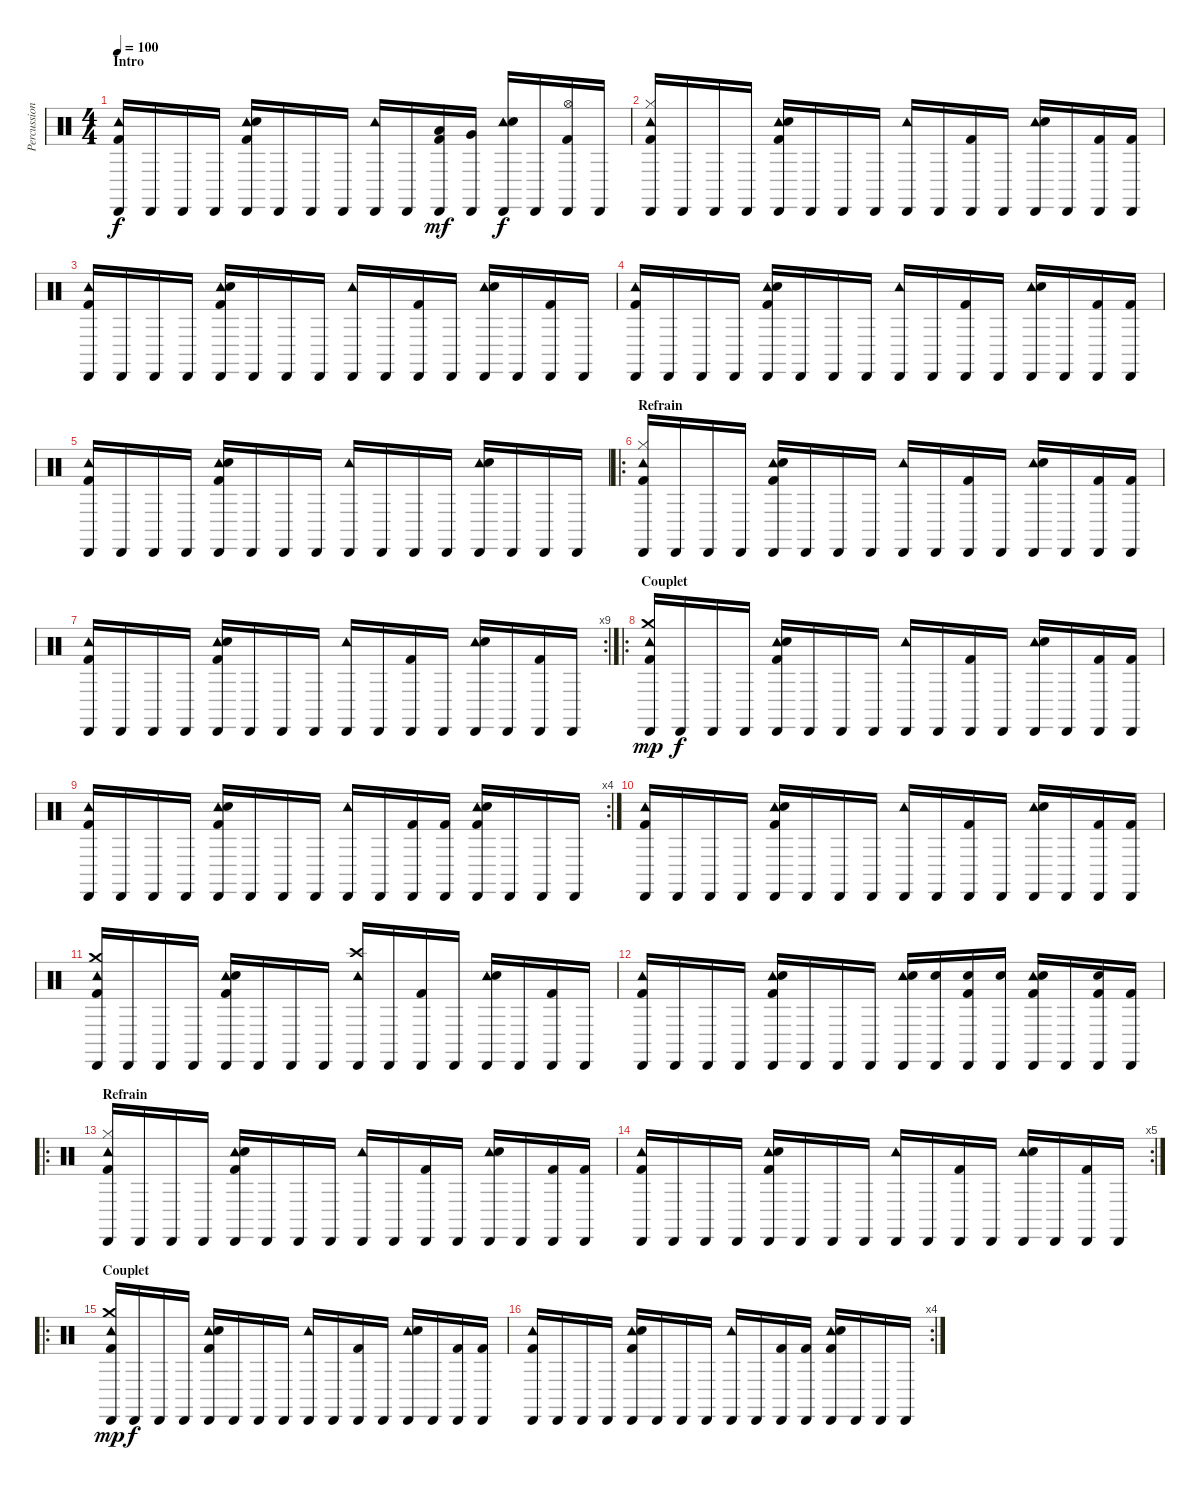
\track ("Percussions" "Percussion") {instrument percussion}
\staff {score}
\articulation defaults
\ts (4 4)
\section ("" "Intro")
\tempo 100
\clef neutral
\ks c
("Cabasa (hit)" "Tambourine (hit)" "Kick (hit) 2").16{dy f} "Cabasa (hit)".16 "Cabasa (hit)".16 "Cabasa (hit)".16 ("Cabasa (hit)" "Tambourine (hit)" "Hand Clap (hit)" "Kick (hit) 2").16 "Cabasa (hit)".16 "Cabasa (hit)".16 "Cabasa (hit)".16 ("Cabasa (hit)" "Tambourine (hit)").16 "Cabasa (hit)".16 ("Cabasa (hit)" "Low Floor Tom (hit)" "Kick (hit) 2").16{dy mf} ("Cabasa (hit)" "Very Low Tom (hit)").16 ("Cabasa (hit)" "Tambourine (hit)" "Hand Clap (hit)").16{dy f} "Cabasa (hit)".16 ("Cabasa (hit)" "Hi-Hat (open)" "Kick (hit) 2").16 "Cabasa (hit)".16 |
("Cabasa (hit)" "Tambourine (hit)" "Hi-Hat (closed)" "Kick (hit) 2").16 "Cabasa (hit)".16 "Cabasa (hit)".16 "Cabasa (hit)".16 ("Cabasa (hit)" "Tambourine (hit)" "Hand Clap (hit)" "Kick (hit) 2").16 "Cabasa (hit)".16 "Cabasa (hit)".16 "Cabasa (hit)".16 ("Cabasa (hit)" "Tambourine (hit)").16 "Cabasa (hit)".16 ("Cabasa (hit)" "Kick (hit) 2").16 "Cabasa (hit)".16 ("Cabasa (hit)" "Tambourine (hit)" "Hand Clap (hit)").16 "Cabasa (hit)".16 ("Cabasa (hit)" "Kick (hit) 2").16 ("Cabasa (hit)" "Kick (hit) 2").16 |
("Cabasa (hit)" "Tambourine (hit)" "Kick (hit) 2").16 "Cabasa (hit)".16 "Cabasa (hit)".16 "Cabasa (hit)".16 ("Cabasa (hit)" "Tambourine (hit)" "Hand Clap (hit)" "Kick (hit) 2").16 "Cabasa (hit)".16 "Cabasa (hit)".16 "Cabasa (hit)".16 ("Cabasa (hit)" "Tambourine (hit)").16 "Cabasa (hit)".16 ("Cabasa (hit)" "Kick (hit) 2").16 "Cabasa (hit)".16 ("Cabasa (hit)" "Tambourine (hit)" "Hand Clap (hit)").16 "Cabasa (hit)".16 ("Cabasa (hit)" "Kick (hit) 2").16 "Cabasa (hit)".16 |
("Cabasa (hit)" "Tambourine (hit)" "Kick (hit) 2").16 "Cabasa (hit)".16 "Cabasa (hit)".16 "Cabasa (hit)".16 ("Cabasa (hit)" "Tambourine (hit)" "Hand Clap (hit)" "Kick (hit) 2").16 "Cabasa (hit)".16 "Cabasa (hit)".16 "Cabasa (hit)".16 ("Cabasa (hit)" "Tambourine (hit)").16 "Cabasa (hit)".16 ("Cabasa (hit)" "Kick (hit) 2").16 "Cabasa (hit)".16 ("Cabasa (hit)" "Tambourine (hit)" "Hand Clap (hit)").16 "Cabasa (hit)".16 ("Cabasa (hit)" "Kick (hit) 2").16 ("Cabasa (hit)" "Kick (hit) 2").16 |
("Cabasa (hit)" "Tambourine (hit)" "Kick (hit) 2").16 "Cabasa (hit)".16 "Cabasa (hit)".16 "Cabasa (hit)".16 ("Cabasa (hit)" "Tambourine (hit)" "Hand Clap (hit)" "Kick (hit) 2").16 "Cabasa (hit)".16 "Cabasa (hit)".16 "Cabasa (hit)".16 ("Cabasa (hit)" "Tambourine (hit)").16 "Cabasa (hit)".16 "Cabasa (hit)".16 "Cabasa (hit)".16 ("Cabasa (hit)" "Tambourine (hit)" "Hand Clap (hit)").16 "Cabasa (hit)".16 "Cabasa (hit)".16 "Cabasa (hit)".16 |
\ro
\section ("" "Refrain")
("Cabasa (hit)" "Tambourine (hit)" "Hi-Hat (closed)" "Kick (hit) 2").16 "Cabasa (hit)".16 "Cabasa (hit)".16 "Cabasa (hit)".16 ("Cabasa (hit)" "Tambourine (hit)" "Hand Clap (hit)" "Kick (hit) 2").16 "Cabasa (hit)".16 "Cabasa (hit)".16 "Cabasa (hit)".16 ("Cabasa (hit)" "Tambourine (hit)").16 "Cabasa (hit)".16 ("Cabasa (hit)" "Kick (hit) 2").16 "Cabasa (hit)".16 ("Cabasa (hit)" "Tambourine (hit)" "Hand Clap (hit)").16 "Cabasa (hit)".16 ("Cabasa (hit)" "Kick (hit) 2").16 ("Cabasa (hit)" "Kick (hit) 2").16 |
\rc 9
("Cabasa (hit)" "Tambourine (hit)" "Kick (hit) 2").16 "Cabasa (hit)".16 "Cabasa (hit)".16 "Cabasa (hit)".16 ("Cabasa (hit)" "Tambourine (hit)" "Hand Clap (hit)" "Kick (hit) 2").16 "Cabasa (hit)".16 "Cabasa (hit)".16 "Cabasa (hit)".16 ("Cabasa (hit)" "Tambourine (hit)").16 "Cabasa (hit)".16 ("Cabasa (hit)" "Kick (hit) 2").16 "Cabasa (hit)".16 ("Cabasa (hit)" "Tambourine (hit)" "Hand Clap (hit)").16 "Cabasa (hit)".16 ("Cabasa (hit)" "Kick (hit) 2").16 "Cabasa (hit)".16 |
\ro
\section ("" "Couplet")
("Cabasa (hit)" "Tambourine (hit)" "Crash medium (hit)" "Kick (hit) 2").16{dy mp} "Cabasa (hit)".16{dy f} "Cabasa (hit)".16 "Cabasa (hit)".16 ("Cabasa (hit)" "Tambourine (hit)" "Hand Clap (hit)" "Kick (hit) 2").16 "Cabasa (hit)".16 "Cabasa (hit)".16 "Cabasa (hit)".16 ("Cabasa (hit)" "Tambourine (hit)").16 "Cabasa (hit)".16 ("Cabasa (hit)" "Kick (hit) 2").16 "Cabasa (hit)".16 ("Cabasa (hit)" "Tambourine (hit)" "Hand Clap (hit)").16 "Cabasa (hit)".16 ("Cabasa (hit)" "Kick (hit) 2").16 ("Cabasa (hit)" "Kick (hit) 2").16 |
\rc 4
("Cabasa (hit)" "Tambourine (hit)" "Kick (hit) 2").16 "Cabasa (hit)".16 "Cabasa (hit)".16 "Cabasa (hit)".16 ("Cabasa (hit)" "Tambourine (hit)" "Hand Clap (hit)" "Kick (hit) 2").16 "Cabasa (hit)".16 "Cabasa (hit)".16 "Cabasa (hit)".16 ("Cabasa (hit)" "Tambourine (hit)").16 "Cabasa (hit)".16 ("Cabasa (hit)" "Kick (hit) 2").16 ("Cabasa (hit)" "Kick (hit) 2").16 ("Cabasa (hit)" "Tambourine (hit)" "Hand Clap (hit)" "Kick (hit) 2").16 "Cabasa (hit)".16 "Cabasa (hit)".16 "Cabasa (hit)".16 |
("Cabasa (hit)" "Tambourine (hit)" "Kick (hit) 2").16 "Cabasa (hit)".16 "Cabasa (hit)".16 "Cabasa (hit)".16 ("Cabasa (hit)" "Tambourine (hit)" "Hand Clap (hit)" "Kick (hit) 2").16 "Cabasa (hit)".16 "Cabasa (hit)".16 "Cabasa (hit)".16 ("Cabasa (hit)" "Tambourine (hit)").16 "Cabasa (hit)".16 ("Cabasa (hit)" "Kick (hit) 2").16 "Cabasa (hit)".16 ("Cabasa (hit)" "Tambourine (hit)" "Hand Clap (hit)").16 "Cabasa (hit)".16 ("Cabasa (hit)" "Kick (hit) 2").16 ("Cabasa (hit)" "Kick (hit) 2").16 |
("Cabasa (hit)" "Tambourine (hit)" "Crash medium (hit)" "Kick (hit) 2").16 "Cabasa (hit)".16 "Cabasa (hit)".16 "Cabasa (hit)".16 ("Cabasa (hit)" "Tambourine (hit)" "Hand Clap (hit)" "Kick (hit) 2").16 "Cabasa (hit)".16 "Cabasa (hit)".16 "Cabasa (hit)".16 ("Cabasa (hit)" "Tambourine (hit)" "Crash high (hit)").16 "Cabasa (hit)".16 ("Cabasa (hit)" "Kick (hit) 2").16 "Cabasa (hit)".16 ("Cabasa (hit)" "Tambourine (hit)" "Hand Clap (hit)").16 "Cabasa (hit)".16 ("Cabasa (hit)" "Kick (hit) 2").16 "Cabasa (hit)".16 |
("Cabasa (hit)" "Tambourine (hit)" "Kick (hit) 2").16 "Cabasa (hit)".16 "Cabasa (hit)".16 "Cabasa (hit)".16 ("Cabasa (hit)" "Tambourine (hit)" "Hand Clap (hit)" "Kick (hit) 2").16 "Cabasa (hit)".16 "Cabasa (hit)".16 "Cabasa (hit)".16 ("Cabasa (hit)" "Tambourine (hit)" "Snare (hit) 2").16 ("Cabasa (hit)" "Snare (hit) 2").16 ("Cabasa (hit)" "Snare (hit) 2" "Kick (hit) 2").16 ("Cabasa (hit)" "Snare (hit) 2").16 ("Cabasa (hit)" "Tambourine (hit)" "Snare (hit) 2" "Kick (hit) 2").16 "Cabasa (hit)".16 ("Cabasa (hit)" "Snare (hit) 2" "Kick (hit) 2").16 ("Cabasa (hit)" "Kick (hit) 2").16 |
\ro
\section ("" "Refrain")
("Cabasa (hit)" "Tambourine (hit)" "Hi-Hat (closed)" "Kick (hit) 2").16 "Cabasa (hit)".16 "Cabasa (hit)".16 "Cabasa (hit)".16 ("Cabasa (hit)" "Tambourine (hit)" "Hand Clap (hit)" "Kick (hit) 2").16 "Cabasa (hit)".16 "Cabasa (hit)".16 "Cabasa (hit)".16 ("Cabasa (hit)" "Tambourine (hit)").16 "Cabasa (hit)".16 ("Cabasa (hit)" "Kick (hit) 2").16 "Cabasa (hit)".16 ("Cabasa (hit)" "Tambourine (hit)" "Hand Clap (hit)").16 "Cabasa (hit)".16 ("Cabasa (hit)" "Kick (hit) 2").16 ("Cabasa (hit)" "Kick (hit) 2").16 |
\rc 5
("Cabasa (hit)" "Tambourine (hit)" "Kick (hit) 2").16 "Cabasa (hit)".16 "Cabasa (hit)".16 "Cabasa (hit)".16 ("Cabasa (hit)" "Tambourine (hit)" "Hand Clap (hit)" "Kick (hit) 2").16 "Cabasa (hit)".16 "Cabasa (hit)".16 "Cabasa (hit)".16 ("Cabasa (hit)" "Tambourine (hit)").16 "Cabasa (hit)".16 ("Cabasa (hit)" "Kick (hit) 2").16 "Cabasa (hit)".16 ("Cabasa (hit)" "Tambourine (hit)" "Hand Clap (hit)").16 "Cabasa (hit)".16 ("Cabasa (hit)" "Kick (hit) 2").16 "Cabasa (hit)".16 |
\ro
\section ("" "Couplet")
("Cabasa (hit)" "Tambourine (hit)" "Crash medium (hit)" "Kick (hit) 2").16{dy mp} "Cabasa (hit)".16{dy f} "Cabasa (hit)".16 "Cabasa (hit)".16 ("Cabasa (hit)" "Tambourine (hit)" "Hand Clap (hit)" "Kick (hit) 2").16 "Cabasa (hit)".16 "Cabasa (hit)".16 "Cabasa (hit)".16 ("Cabasa (hit)" "Tambourine (hit)").16 "Cabasa (hit)".16 ("Cabasa (hit)" "Kick (hit) 2").16 "Cabasa (hit)".16 ("Cabasa (hit)" "Tambourine (hit)" "Hand Clap (hit)").16 "Cabasa (hit)".16 ("Cabasa (hit)" "Kick (hit) 2").16 ("Cabasa (hit)" "Kick (hit) 2").16 |
\rc 4
("Cabasa (hit)" "Tambourine (hit)" "Kick (hit) 2").16 "Cabasa (hit)".16 "Cabasa (hit)".16 "Cabasa (hit)".16 ("Cabasa (hit)" "Tambourine (hit)" "Hand Clap (hit)" "Kick (hit) 2").16 "Cabasa (hit)".16 "Cabasa (hit)".16 "Cabasa (hit)".16 ("Cabasa (hit)" "Tambourine (hit)").16 "Cabasa (hit)".16 ("Cabasa (hit)" "Kick (hit) 2").16 ("Cabasa (hit)" "Kick (hit) 2").16 ("Cabasa (hit)" "Tambourine (hit)" "Hand Clap (hit)" "Kick (hit) 2").16 "Cabasa (hit)".16 "Cabasa (hit)".16 "Cabasa (hit)".16
